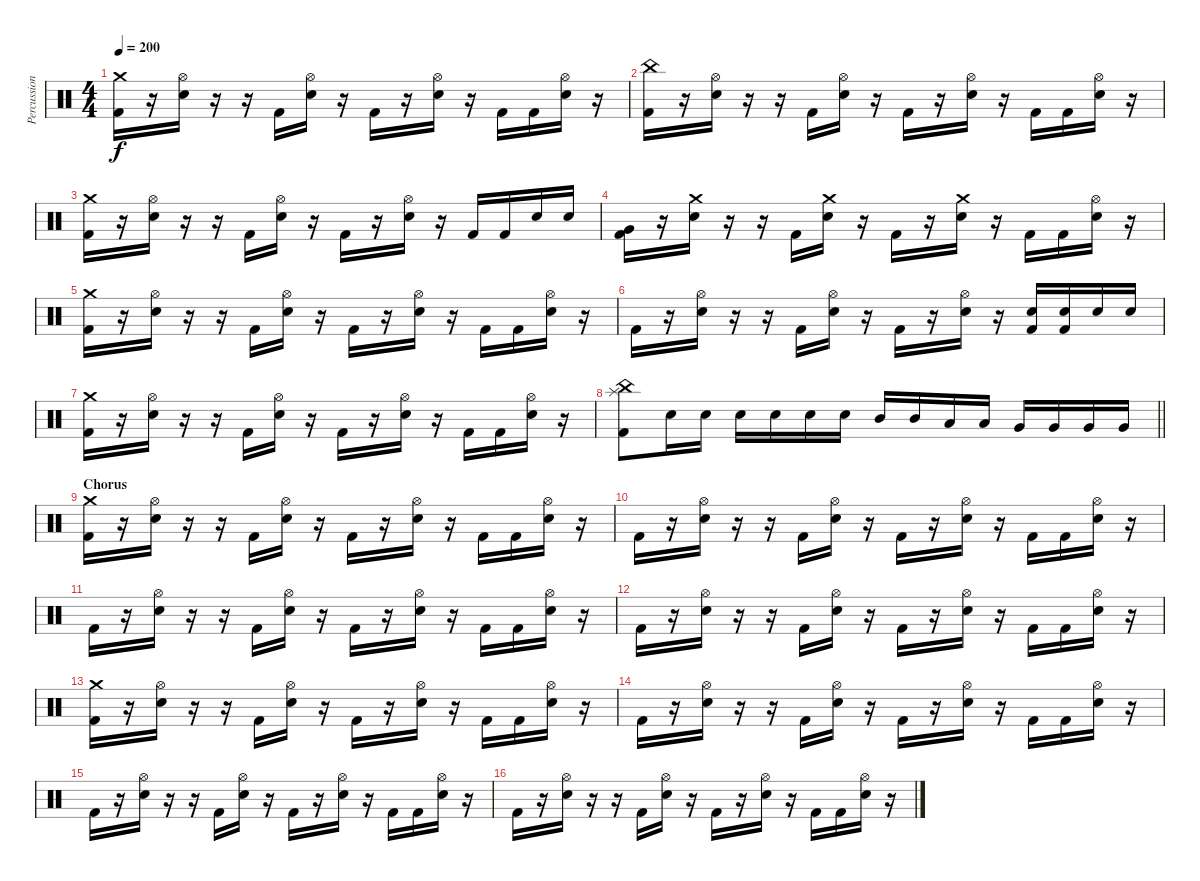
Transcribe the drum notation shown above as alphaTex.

\track ("Percussion" "Percussion") {instrument percussion}
\staff {score}
\articulation defaults
\ts (4 4)
\tempo 200
\clef neutral
\ks c
("Kick (hit) 2" "Crash medium (hit)").16{dy f} r.16 ("Hi-Hat (open)" "Electric Snare (hit)").16 r.16 r.16 "Kick (hit) 2".16 ("Hi-Hat (open)" "Electric Snare (hit)").16 r.16 "Kick (hit) 2".16 r.16 ("Hi-Hat (open)" "Electric Snare (hit)").16 r.16 "Kick (hit) 2".16 "Kick (hit) 2".16 ("Hi-Hat (open)" "Electric Snare (hit)").16 r.16 |
("Kick (hit) 2" "China (hit)").16 r.16 ("Hi-Hat (open)" "Electric Snare (hit)").16 r.16 r.16 "Kick (hit) 2".16 ("Hi-Hat (open)" "Electric Snare (hit)").16 r.16 "Kick (hit) 2".16 r.16 ("Hi-Hat (open)" "Electric Snare (hit)").16 r.16 "Kick (hit) 2".16 "Kick (hit) 2".16 ("Hi-Hat (open)" "Electric Snare (hit)").16 r.16 |
("Kick (hit) 2" "Crash medium (hit)").16 r.16 ("Hi-Hat (open)" "Electric Snare (hit)").16 r.16 r.16 "Kick (hit) 2".16 ("Hi-Hat (open)" "Electric Snare (hit)").16 r.16 "Kick (hit) 2".16 r.16 ("Hi-Hat (open)" "Electric Snare (hit)").16 r.16 "Kick (hit) 2".16 "Kick (hit) 2".16 "Electric Snare (hit)".16 "Electric Snare (hit)".16 |
("Kick (hit) 2" "Very Low Tom (hit)").16 r.16 ("Crash medium (hit)" "Electric Snare (hit)").16 r.16 r.16 "Kick (hit) 2".16 ("Crash medium (hit)" "Electric Snare (hit)").16 r.16 "Kick (hit) 2".16 r.16 ("Crash medium (hit)" "Electric Snare (hit)").16 r.16 "Kick (hit) 2".16 "Kick (hit) 2".16 ("Hi-Hat (open)" "Electric Snare (hit)").16 r.16 |
("Crash medium (hit)" "Kick (hit) 2").16 r.16 ("Hi-Hat (open)" "Electric Snare (hit)").16 r.16 r.16 "Kick (hit) 2".16 ("Hi-Hat (open)" "Electric Snare (hit)").16 r.16 "Kick (hit) 2".16 r.16 ("Hi-Hat (open)" "Electric Snare (hit)").16 r.16 "Kick (hit) 2".16 "Kick (hit) 2".16 ("Hi-Hat (open)" "Electric Snare (hit)").16 r.16 |
"Kick (hit) 2".16 r.16 ("Hi-Hat (open)" "Electric Snare (hit)").16 r.16 r.16 "Kick (hit) 2".16 ("Hi-Hat (open)" "Electric Snare (hit)").16 r.16 "Kick (hit) 2".16 r.16 ("Hi-Hat (open)" "Electric Snare (hit)").16 r.16 ("Electric Snare (hit)" "Kick (hit) 2").16 ("Electric Snare (hit)" "Kick (hit) 2").16 "Electric Snare (hit)".16 "Electric Snare (hit)".16 |
("Crash medium (hit)" "Kick (hit) 2").16 r.16 ("Hi-Hat (open)" "Electric Snare (hit)").16 r.16 r.16 "Kick (hit) 2".16 ("Hi-Hat (open)" "Electric Snare (hit)").16 r.16 "Kick (hit) 2".16 r.16 ("Hi-Hat (open)" "Electric Snare (hit)").16 r.16 "Kick (hit) 2".16 "Kick (hit) 2".16 ("Hi-Hat (open)" "Electric Snare (hit)").16 r.16 |
\barLineRight lightlight
("Kick (hit) 2" "China (hit)" "Splash (hit)").8 "Electric Snare (hit)".16 "Electric Snare (hit)".16 "Electric Snare (hit)".16 "Electric Snare (hit)".16 "Electric Snare (hit)".16 "Electric Snare (hit)".16 "Mid Tom (hit)".16 "Mid Tom (hit)".16 "Low Tom (hit)".16 "Low Tom (hit)".16 "Very Low Tom (hit)".16 "Very Low Tom (hit)".16 "Very Low Tom (hit)".16 "Very Low Tom (hit)".16 |
\section ("" "Chorus")
("Crash medium (hit)" "Kick (hit) 2").16 r.16 ("Hi-Hat (open)" "Electric Snare (hit)").16 r.16 r.16 "Kick (hit) 2".16 ("Hi-Hat (open)" "Electric Snare (hit)").16 r.16 "Kick (hit) 2".16 r.16 ("Hi-Hat (open)" "Electric Snare (hit)").16 r.16 "Kick (hit) 2".16 "Kick (hit) 2".16 ("Hi-Hat (open)" "Electric Snare (hit)").16 r.16 |
"Kick (hit) 2".16 r.16 ("Hi-Hat (open)" "Electric Snare (hit)").16 r.16 r.16 "Kick (hit) 2".16 ("Hi-Hat (open)" "Electric Snare (hit)").16 r.16 "Kick (hit) 2".16 r.16 ("Hi-Hat (open)" "Electric Snare (hit)").16 r.16 "Kick (hit) 2".16 "Kick (hit) 2".16 ("Hi-Hat (open)" "Electric Snare (hit)").16 r.16 |
"Kick (hit) 2".16 r.16 ("Hi-Hat (open)" "Electric Snare (hit)").16 r.16 r.16 "Kick (hit) 2".16 ("Hi-Hat (open)" "Electric Snare (hit)").16 r.16 "Kick (hit) 2".16 r.16 ("Hi-Hat (open)" "Electric Snare (hit)").16 r.16 "Kick (hit) 2".16 "Kick (hit) 2".16 ("Hi-Hat (open)" "Electric Snare (hit)").16 r.16 |
"Kick (hit) 2".16 r.16 ("Hi-Hat (open)" "Electric Snare (hit)").16 r.16 r.16 "Kick (hit) 2".16 ("Hi-Hat (open)" "Electric Snare (hit)").16 r.16 "Kick (hit) 2".16 r.16 ("Hi-Hat (open)" "Electric Snare (hit)").16 r.16 "Kick (hit) 2".16 "Kick (hit) 2".16 ("Hi-Hat (open)" "Electric Snare (hit)").16 r.16 |
("Crash medium (hit)" "Kick (hit) 2").16 r.16 ("Hi-Hat (open)" "Electric Snare (hit)").16 r.16 r.16 "Kick (hit) 2".16 ("Hi-Hat (open)" "Electric Snare (hit)").16 r.16 "Kick (hit) 2".16 r.16 ("Hi-Hat (open)" "Electric Snare (hit)").16 r.16 "Kick (hit) 2".16 "Kick (hit) 2".16 ("Hi-Hat (open)" "Electric Snare (hit)").16 r.16 |
"Kick (hit) 2".16 r.16 ("Hi-Hat (open)" "Electric Snare (hit)").16 r.16 r.16 "Kick (hit) 2".16 ("Hi-Hat (open)" "Electric Snare (hit)").16 r.16 "Kick (hit) 2".16 r.16 ("Hi-Hat (open)" "Electric Snare (hit)").16 r.16 "Kick (hit) 2".16 "Kick (hit) 2".16 ("Hi-Hat (open)" "Electric Snare (hit)").16 r.16 |
"Kick (hit) 2".16 r.16 ("Hi-Hat (open)" "Electric Snare (hit)").16 r.16 r.16 "Kick (hit) 2".16 ("Hi-Hat (open)" "Electric Snare (hit)").16 r.16 "Kick (hit) 2".16 r.16 ("Hi-Hat (open)" "Electric Snare (hit)").16 r.16 "Kick (hit) 2".16 "Kick (hit) 2".16 ("Hi-Hat (open)" "Electric Snare (hit)").16 r.16 |
"Kick (hit) 2".16 r.16 ("Hi-Hat (open)" "Electric Snare (hit)").16 r.16 r.16 "Kick (hit) 2".16 ("Hi-Hat (open)" "Electric Snare (hit)").16 r.16 "Kick (hit) 2".16 r.16 ("Hi-Hat (open)" "Electric Snare (hit)").16 r.16 "Kick (hit) 2".16 "Kick (hit) 2".16 ("Hi-Hat (open)" "Electric Snare (hit)").16 r.16
